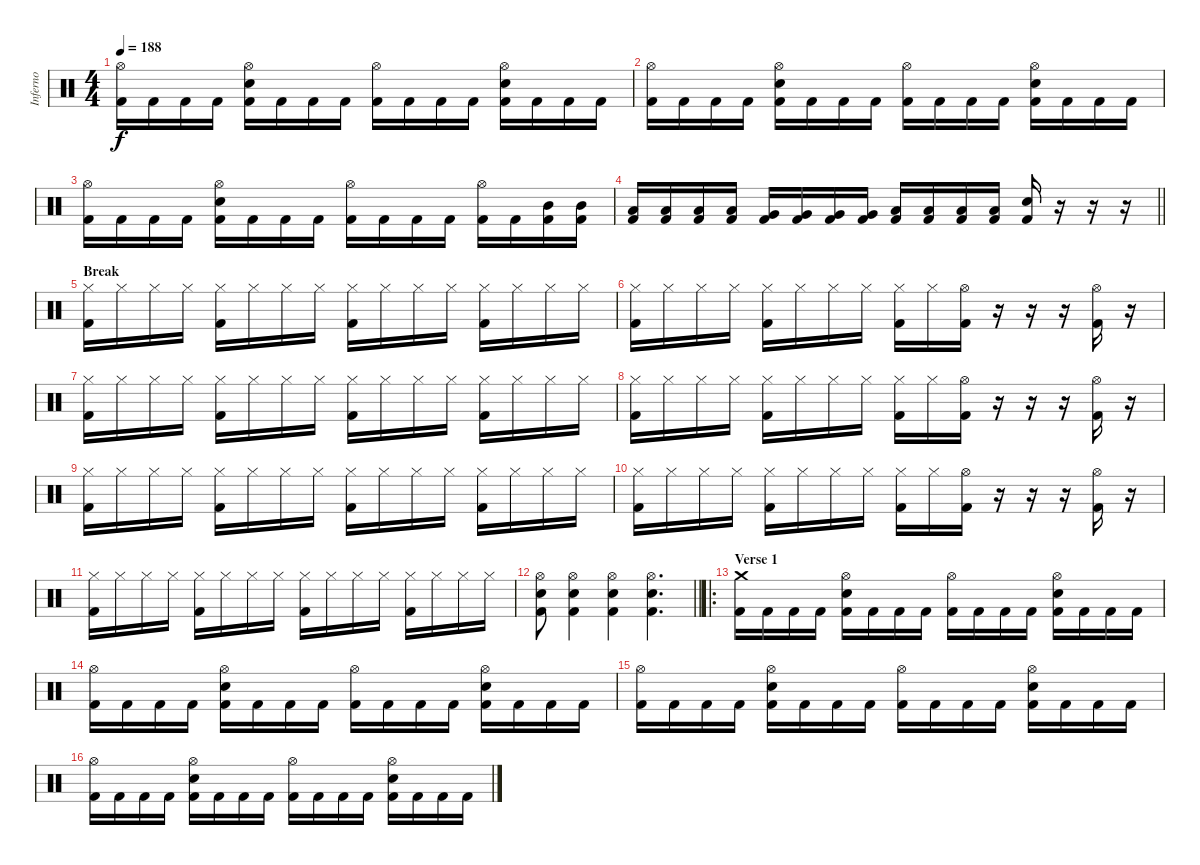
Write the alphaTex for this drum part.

\track ("Inferno" "Inferno") {instrument percussion}
\staff {score}
\articulation defaults
\ts (4 4)
\tempo 188
\clef neutral
\ks c
("Hi-Hat (open)" "Kick (hit) 2").16{dy f} "Kick (hit) 2".16 "Kick (hit) 2".16 "Kick (hit) 2".16 ("Hi-Hat (open)" "Snare (hit) 2" "Kick (hit) 2").16 "Kick (hit) 2".16 "Kick (hit) 2".16 "Kick (hit) 2".16 ("Hi-Hat (open)" "Kick (hit) 2").16 "Kick (hit) 2".16 "Kick (hit) 2".16 "Kick (hit) 2".16 ("Hi-Hat (open)" "Snare (hit) 2" "Kick (hit) 2").16 "Kick (hit) 2".16 "Kick (hit) 2".16 "Kick (hit) 2".16 |
("Hi-Hat (open)" "Kick (hit) 2").16 "Kick (hit) 2".16 "Kick (hit) 2".16 "Kick (hit) 2".16 ("Hi-Hat (open)" "Snare (hit) 2" "Kick (hit) 2").16 "Kick (hit) 2".16 "Kick (hit) 2".16 "Kick (hit) 2".16 ("Hi-Hat (open)" "Kick (hit) 2").16 "Kick (hit) 2".16 "Kick (hit) 2".16 "Kick (hit) 2".16 ("Hi-Hat (open)" "Snare (hit) 2" "Kick (hit) 2").16 "Kick (hit) 2".16 "Kick (hit) 2".16 "Kick (hit) 2".16 |
("Hi-Hat (open)" "Kick (hit) 2").16 "Kick (hit) 2".16 "Kick (hit) 2".16 "Kick (hit) 2".16 ("Hi-Hat (open)" "Snare (hit) 2" "Kick (hit) 2").16 "Kick (hit) 2".16 "Kick (hit) 2".16 "Kick (hit) 2".16 ("Hi-Hat (open)" "Kick (hit) 2").16 "Kick (hit) 2".16 "Kick (hit) 2".16 "Kick (hit) 2".16 ("Hi-Hat (open)" "Kick (hit) 2").16 "Kick (hit) 2".16 ("Mid Tom (hit)" "Kick (hit) 2").16 ("Mid Tom (hit)" "Kick (hit) 2").16 |
\barLineRight lightlight
("Low Tom (hit)" "Kick (hit) 2").16 ("Low Tom (hit)" "Kick (hit) 2").16 ("Low Tom (hit)" "Kick (hit) 2").16 ("Low Tom (hit)" "Kick (hit) 2").16 ("Very Low Tom (hit)" "Kick (hit) 2").16 ("Very Low Tom (hit)" "Kick (hit) 2").16 ("Very Low Tom (hit)" "Kick (hit) 2").16 ("Very Low Tom (hit)" "Kick (hit) 2").16 ("Low Floor Tom (hit)" "Kick (hit) 2").16 ("Low Floor Tom (hit)" "Kick (hit) 2").16 ("Low Floor Tom (hit)" "Kick (hit) 2").16 ("Low Floor Tom (hit)" "Kick (hit) 2").16 ("Snare (hit) 2" "Kick (hit) 2").16 r.16 r.16 r.16 |
\section ("" "Break")
("Hi-Hat (closed)" "Kick (hit) 2").16 "Hi-Hat (closed)".16 "Hi-Hat (closed)".16 "Hi-Hat (closed)".16 ("Hi-Hat (closed)" "Kick (hit) 2").16 "Hi-Hat (closed)".16 "Hi-Hat (closed)".16 "Hi-Hat (closed)".16 ("Hi-Hat (closed)" "Kick (hit) 2").16 "Hi-Hat (closed)".16 "Hi-Hat (closed)".16 "Hi-Hat (closed)".16 ("Hi-Hat (closed)" "Kick (hit) 2").16 "Hi-Hat (closed)".16 "Hi-Hat (closed)".16 "Hi-Hat (closed)".16 |
("Hi-Hat (closed)" "Kick (hit) 2").16 "Hi-Hat (closed)".16 "Hi-Hat (closed)".16 "Hi-Hat (closed)".16 ("Hi-Hat (closed)" "Kick (hit) 2").16 "Hi-Hat (closed)".16 "Hi-Hat (closed)".16 "Hi-Hat (closed)".16 ("Hi-Hat (closed)" "Kick (hit) 2").16 "Hi-Hat (closed)".16 ("Hi-Hat (open)" "Kick (hit) 2").16 r.16 r.16 r.16 ("Hi-Hat (open)" "Kick (hit) 2").16 r.16 |
("Hi-Hat (closed)" "Kick (hit) 2").16 "Hi-Hat (closed)".16 "Hi-Hat (closed)".16 "Hi-Hat (closed)".16 ("Hi-Hat (closed)" "Kick (hit) 2").16 "Hi-Hat (closed)".16 "Hi-Hat (closed)".16 "Hi-Hat (closed)".16 ("Hi-Hat (closed)" "Kick (hit) 2").16 "Hi-Hat (closed)".16 "Hi-Hat (closed)".16 "Hi-Hat (closed)".16 ("Hi-Hat (closed)" "Kick (hit) 2").16 "Hi-Hat (closed)".16 "Hi-Hat (closed)".16 "Hi-Hat (closed)".16 |
("Hi-Hat (closed)" "Kick (hit) 2").16 "Hi-Hat (closed)".16 "Hi-Hat (closed)".16 "Hi-Hat (closed)".16 ("Hi-Hat (closed)" "Kick (hit) 2").16 "Hi-Hat (closed)".16 "Hi-Hat (closed)".16 "Hi-Hat (closed)".16 ("Hi-Hat (closed)" "Kick (hit) 2").16 "Hi-Hat (closed)".16 ("Hi-Hat (open)" "Kick (hit) 2").16 r.16 r.16 r.16 ("Hi-Hat (open)" "Kick (hit) 2").16 r.16 |
("Hi-Hat (closed)" "Kick (hit) 2").16 "Hi-Hat (closed)".16 "Hi-Hat (closed)".16 "Hi-Hat (closed)".16 ("Hi-Hat (closed)" "Kick (hit) 2").16 "Hi-Hat (closed)".16 "Hi-Hat (closed)".16 "Hi-Hat (closed)".16 ("Hi-Hat (closed)" "Kick (hit) 2").16 "Hi-Hat (closed)".16 "Hi-Hat (closed)".16 "Hi-Hat (closed)".16 ("Hi-Hat (closed)" "Kick (hit) 2").16 "Hi-Hat (closed)".16 "Hi-Hat (closed)".16 "Hi-Hat (closed)".16 |
("Hi-Hat (closed)" "Kick (hit) 2").16 "Hi-Hat (closed)".16 "Hi-Hat (closed)".16 "Hi-Hat (closed)".16 ("Hi-Hat (closed)" "Kick (hit) 2").16 "Hi-Hat (closed)".16 "Hi-Hat (closed)".16 "Hi-Hat (closed)".16 ("Hi-Hat (closed)" "Kick (hit) 2").16 "Hi-Hat (closed)".16 ("Hi-Hat (open)" "Kick (hit) 2").16 r.16 r.16 r.16 ("Hi-Hat (open)" "Kick (hit) 2").16 r.16 |
("Hi-Hat (closed)" "Kick (hit) 2").16 "Hi-Hat (closed)".16 "Hi-Hat (closed)".16 "Hi-Hat (closed)".16 ("Hi-Hat (closed)" "Kick (hit) 2").16 "Hi-Hat (closed)".16 "Hi-Hat (closed)".16 "Hi-Hat (closed)".16 ("Hi-Hat (closed)" "Kick (hit) 2").16 "Hi-Hat (closed)".16 "Hi-Hat (closed)".16 "Hi-Hat (closed)".16 ("Hi-Hat (closed)" "Kick (hit) 2").16 "Hi-Hat (closed)".16 "Hi-Hat (closed)".16 "Hi-Hat (closed)".16 |
\barLineRight lightlight
("Hi-Hat (open)" "Snare (hit) 2" "Kick (hit) 2").8 ("Hi-Hat (open)" "Snare (hit) 2" "Kick (hit) 2").4 ("Hi-Hat (open)" "Snare (hit) 2" "Kick (hit) 2").4 ("Hi-Hat (open)" "Snare (hit) 2" "Kick (hit) 2").4{d} |
\ro
\section ("" "Verse 1")
("Crash medium (hit)" "Kick (hit) 2").16 "Kick (hit) 2".16 "Kick (hit) 2".16 "Kick (hit) 2".16 ("Hi-Hat (open)" "Snare (hit) 2" "Kick (hit) 2").16 "Kick (hit) 2".16 "Kick (hit) 2".16 "Kick (hit) 2".16 ("Hi-Hat (open)" "Kick (hit) 2").16 "Kick (hit) 2".16 "Kick (hit) 2".16 "Kick (hit) 2".16 ("Hi-Hat (open)" "Snare (hit) 2" "Kick (hit) 2").16 "Kick (hit) 2".16 "Kick (hit) 2".16 "Kick (hit) 2".16 |
("Hi-Hat (open)" "Kick (hit) 2").16 "Kick (hit) 2".16 "Kick (hit) 2".16 "Kick (hit) 2".16 ("Hi-Hat (open)" "Snare (hit) 2" "Kick (hit) 2").16 "Kick (hit) 2".16 "Kick (hit) 2".16 "Kick (hit) 2".16 ("Hi-Hat (open)" "Kick (hit) 2").16 "Kick (hit) 2".16 "Kick (hit) 2".16 "Kick (hit) 2".16 ("Hi-Hat (open)" "Snare (hit) 2" "Kick (hit) 2").16 "Kick (hit) 2".16 "Kick (hit) 2".16 "Kick (hit) 2".16 |
("Hi-Hat (open)" "Kick (hit) 2").16 "Kick (hit) 2".16 "Kick (hit) 2".16 "Kick (hit) 2".16 ("Hi-Hat (open)" "Snare (hit) 2" "Kick (hit) 2").16 "Kick (hit) 2".16 "Kick (hit) 2".16 "Kick (hit) 2".16 ("Hi-Hat (open)" "Kick (hit) 2").16 "Kick (hit) 2".16 "Kick (hit) 2".16 "Kick (hit) 2".16 ("Hi-Hat (open)" "Snare (hit) 2" "Kick (hit) 2").16 "Kick (hit) 2".16 "Kick (hit) 2".16 "Kick (hit) 2".16 |
("Hi-Hat (open)" "Kick (hit) 2").16 "Kick (hit) 2".16 "Kick (hit) 2".16 "Kick (hit) 2".16 ("Hi-Hat (open)" "Snare (hit) 2" "Kick (hit) 2").16 "Kick (hit) 2".16 "Kick (hit) 2".16 "Kick (hit) 2".16 ("Hi-Hat (open)" "Kick (hit) 2").16 "Kick (hit) 2".16 "Kick (hit) 2".16 "Kick (hit) 2".16 ("Hi-Hat (open)" "Snare (hit) 2" "Kick (hit) 2").16 "Kick (hit) 2".16 "Kick (hit) 2".16 "Kick (hit) 2".16
